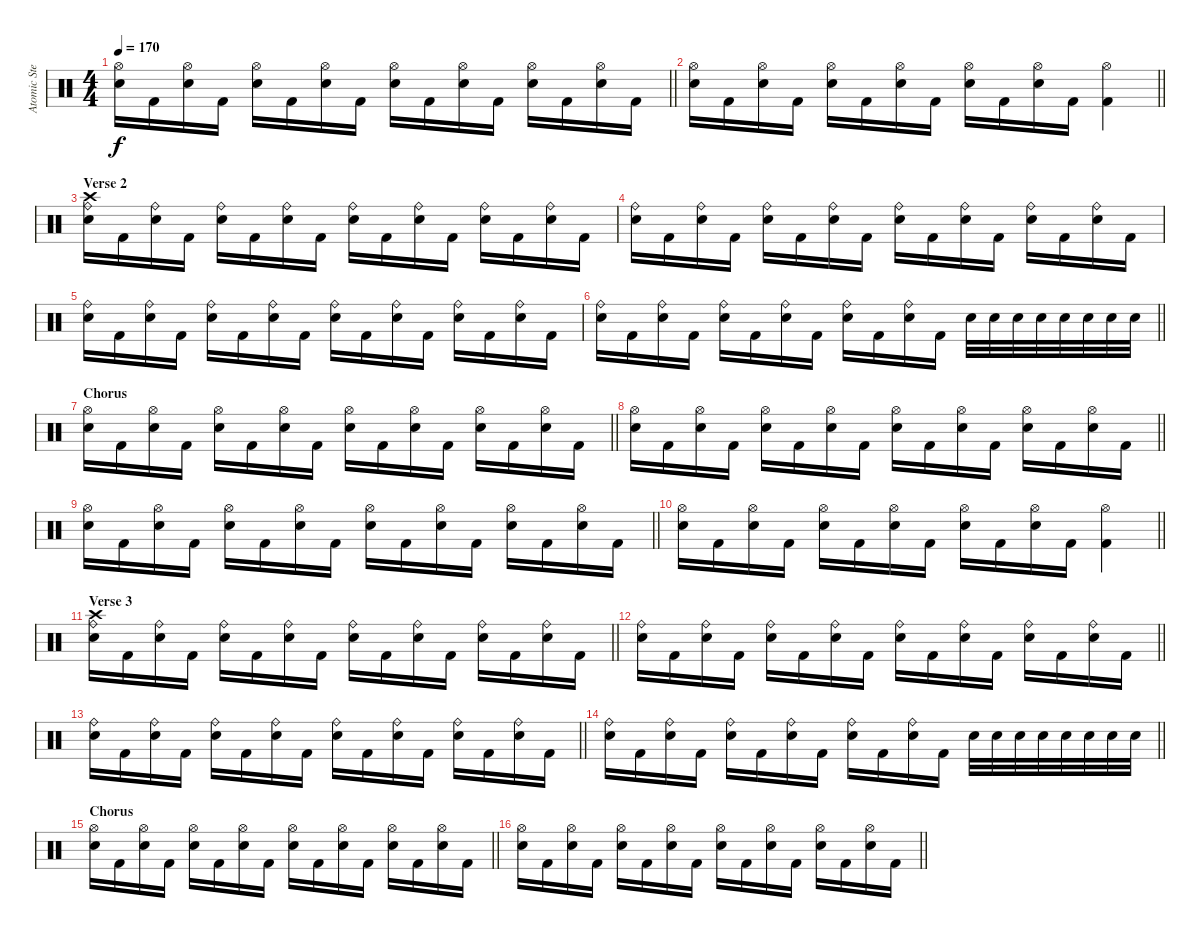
\track ("Atomic Steif" "Atomic Ste") {instrument percussion}
\staff {score}
\articulation defaults
\ts (4 4)
\tempo 170
\clef neutral
\barLineRight lightlight
\ks c
("Hi-Hat (open)" "Electric Snare (hit)").16{dy f} "Kick (hit) 2".16 ("Hi-Hat (open)" "Electric Snare (hit)").16 "Kick (hit) 2".16 ("Hi-Hat (open)" "Electric Snare (hit)").16 "Kick (hit) 2".16 ("Hi-Hat (open)" "Electric Snare (hit)").16 "Kick (hit) 2".16 ("Hi-Hat (open)" "Electric Snare (hit)").16 "Kick (hit) 2".16 ("Hi-Hat (open)" "Electric Snare (hit)").16 "Kick (hit) 2".16 ("Hi-Hat (open)" "Electric Snare (hit)").16 "Kick (hit) 2".16 ("Hi-Hat (open)" "Electric Snare (hit)").16 "Kick (hit) 2".16 |
\barLineRight lightlight
("Hi-Hat (open)" "Electric Snare (hit)").16 "Kick (hit) 2".16 ("Hi-Hat (open)" "Electric Snare (hit)").16 "Kick (hit) 2".16 ("Hi-Hat (open)" "Electric Snare (hit)").16 "Kick (hit) 2".16 ("Hi-Hat (open)" "Electric Snare (hit)").16 "Kick (hit) 2".16 ("Hi-Hat (open)" "Electric Snare (hit)").16 "Kick (hit) 2".16 ("Hi-Hat (open)" "Electric Snare (hit)").16 "Kick (hit) 2".16 ("Hi-Hat (open)" "Kick (hit) 2").4 |
\section ("" "Verse 2")
("Crash high (hit)" "Ride (bell)" "Electric Snare (hit)").16 "Kick (hit) 2".16 ("Ride (bell)" "Electric Snare (hit)").16 "Kick (hit) 2".16 ("Ride (bell)" "Electric Snare (hit)").16 "Kick (hit) 2".16 ("Ride (bell)" "Electric Snare (hit)").16 "Kick (hit) 2".16 ("Ride (bell)" "Electric Snare (hit)").16 "Kick (hit) 2".16 ("Ride (bell)" "Electric Snare (hit)").16 "Kick (hit) 2".16 ("Ride (bell)" "Electric Snare (hit)").16 "Kick (hit) 2".16 ("Ride (bell)" "Electric Snare (hit)").16 "Kick (hit) 2".16 |
("Ride (bell)" "Electric Snare (hit)").16 "Kick (hit) 2".16 ("Ride (bell)" "Electric Snare (hit)").16 "Kick (hit) 2".16 ("Ride (bell)" "Electric Snare (hit)").16 "Kick (hit) 2".16 ("Ride (bell)" "Electric Snare (hit)").16 "Kick (hit) 2".16 ("Ride (bell)" "Electric Snare (hit)").16 "Kick (hit) 2".16 ("Ride (bell)" "Electric Snare (hit)").16 "Kick (hit) 2".16 ("Ride (bell)" "Electric Snare (hit)").16 "Kick (hit) 2".16 ("Ride (bell)" "Electric Snare (hit)").16 "Kick (hit) 2".16 |
("Ride (bell)" "Electric Snare (hit)").16 "Kick (hit) 2".16 ("Ride (bell)" "Electric Snare (hit)").16 "Kick (hit) 2".16 ("Ride (bell)" "Electric Snare (hit)").16 "Kick (hit) 2".16 ("Ride (bell)" "Electric Snare (hit)").16 "Kick (hit) 2".16 ("Ride (bell)" "Electric Snare (hit)").16 "Kick (hit) 2".16 ("Ride (bell)" "Electric Snare (hit)").16 "Kick (hit) 2".16 ("Ride (bell)" "Electric Snare (hit)").16 "Kick (hit) 2".16 ("Ride (bell)" "Electric Snare (hit)").16 "Kick (hit) 2".16 |
\barLineRight lightlight
("Ride (bell)" "Electric Snare (hit)").16 "Kick (hit) 2".16 ("Ride (bell)" "Electric Snare (hit)").16 "Kick (hit) 2".16 ("Ride (bell)" "Electric Snare (hit)").16 "Kick (hit) 2".16 ("Ride (bell)" "Electric Snare (hit)").16 "Kick (hit) 2".16 ("Ride (bell)" "Electric Snare (hit)").16 "Kick (hit) 2".16 ("Ride (bell)" "Electric Snare (hit)").16 "Kick (hit) 2".16 "Electric Snare (hit)".32 "Electric Snare (hit)".32 "Electric Snare (hit)".32 "Electric Snare (hit)".32 "Electric Snare (hit)".32 "Electric Snare (hit)".32 "Electric Snare (hit)".32 "Electric Snare (hit)".32 |
\section ("" "Chorus")
\barLineRight lightlight
("Hi-Hat (open)" "Electric Snare (hit)").16 "Kick (hit) 2".16 ("Hi-Hat (open)" "Electric Snare (hit)").16 "Kick (hit) 2".16 ("Hi-Hat (open)" "Electric Snare (hit)").16 "Kick (hit) 2".16 ("Hi-Hat (open)" "Electric Snare (hit)").16 "Kick (hit) 2".16 ("Hi-Hat (open)" "Electric Snare (hit)").16 "Kick (hit) 2".16 ("Hi-Hat (open)" "Electric Snare (hit)").16 "Kick (hit) 2".16 ("Hi-Hat (open)" "Electric Snare (hit)").16 "Kick (hit) 2".16 ("Hi-Hat (open)" "Electric Snare (hit)").16 "Kick (hit) 2".16 |
\barLineRight lightlight
("Hi-Hat (open)" "Electric Snare (hit)").16 "Kick (hit) 2".16 ("Hi-Hat (open)" "Electric Snare (hit)").16 "Kick (hit) 2".16 ("Hi-Hat (open)" "Electric Snare (hit)").16 "Kick (hit) 2".16 ("Hi-Hat (open)" "Electric Snare (hit)").16 "Kick (hit) 2".16 ("Hi-Hat (open)" "Electric Snare (hit)").16 "Kick (hit) 2".16 ("Hi-Hat (open)" "Electric Snare (hit)").16 "Kick (hit) 2".16 ("Hi-Hat (open)" "Electric Snare (hit)").16 "Kick (hit) 2".16 ("Hi-Hat (open)" "Electric Snare (hit)").16 "Kick (hit) 2".16 |
\barLineRight lightlight
("Hi-Hat (open)" "Electric Snare (hit)").16 "Kick (hit) 2".16 ("Hi-Hat (open)" "Electric Snare (hit)").16 "Kick (hit) 2".16 ("Hi-Hat (open)" "Electric Snare (hit)").16 "Kick (hit) 2".16 ("Hi-Hat (open)" "Electric Snare (hit)").16 "Kick (hit) 2".16 ("Hi-Hat (open)" "Electric Snare (hit)").16 "Kick (hit) 2".16 ("Hi-Hat (open)" "Electric Snare (hit)").16 "Kick (hit) 2".16 ("Hi-Hat (open)" "Electric Snare (hit)").16 "Kick (hit) 2".16 ("Hi-Hat (open)" "Electric Snare (hit)").16 "Kick (hit) 2".16 |
\barLineRight lightlight
("Hi-Hat (open)" "Electric Snare (hit)").16 "Kick (hit) 2".16 ("Hi-Hat (open)" "Electric Snare (hit)").16 "Kick (hit) 2".16 ("Hi-Hat (open)" "Electric Snare (hit)").16 "Kick (hit) 2".16 ("Hi-Hat (open)" "Electric Snare (hit)").16 "Kick (hit) 2".16 ("Hi-Hat (open)" "Electric Snare (hit)").16 "Kick (hit) 2".16 ("Hi-Hat (open)" "Electric Snare (hit)").16 "Kick (hit) 2".16 ("Hi-Hat (open)" "Kick (hit) 2").4 |
\section ("" "Verse 3")
\barLineRight lightlight
("Crash high (hit)" "Ride (bell)" "Electric Snare (hit)").16 "Kick (hit) 2".16 ("Ride (bell)" "Electric Snare (hit)").16 "Kick (hit) 2".16 ("Ride (bell)" "Electric Snare (hit)").16 "Kick (hit) 2".16 ("Ride (bell)" "Electric Snare (hit)").16 "Kick (hit) 2".16 ("Ride (bell)" "Electric Snare (hit)").16 "Kick (hit) 2".16 ("Ride (bell)" "Electric Snare (hit)").16 "Kick (hit) 2".16 ("Ride (bell)" "Electric Snare (hit)").16 "Kick (hit) 2".16 ("Ride (bell)" "Electric Snare (hit)").16 "Kick (hit) 2".16 |
\barLineRight lightlight
("Ride (bell)" "Electric Snare (hit)").16 "Kick (hit) 2".16 ("Ride (bell)" "Electric Snare (hit)").16 "Kick (hit) 2".16 ("Ride (bell)" "Electric Snare (hit)").16 "Kick (hit) 2".16 ("Ride (bell)" "Electric Snare (hit)").16 "Kick (hit) 2".16 ("Ride (bell)" "Electric Snare (hit)").16 "Kick (hit) 2".16 ("Ride (bell)" "Electric Snare (hit)").16 "Kick (hit) 2".16 ("Ride (bell)" "Electric Snare (hit)").16 "Kick (hit) 2".16 ("Ride (bell)" "Electric Snare (hit)").16 "Kick (hit) 2".16 |
\barLineRight lightlight
("Ride (bell)" "Electric Snare (hit)").16 "Kick (hit) 2".16 ("Ride (bell)" "Electric Snare (hit)").16 "Kick (hit) 2".16 ("Ride (bell)" "Electric Snare (hit)").16 "Kick (hit) 2".16 ("Ride (bell)" "Electric Snare (hit)").16 "Kick (hit) 2".16 ("Ride (bell)" "Electric Snare (hit)").16 "Kick (hit) 2".16 ("Ride (bell)" "Electric Snare (hit)").16 "Kick (hit) 2".16 ("Ride (bell)" "Electric Snare (hit)").16 "Kick (hit) 2".16 ("Ride (bell)" "Electric Snare (hit)").16 "Kick (hit) 2".16 |
\barLineRight lightlight
("Ride (bell)" "Electric Snare (hit)").16 "Kick (hit) 2".16 ("Ride (bell)" "Electric Snare (hit)").16 "Kick (hit) 2".16 ("Ride (bell)" "Electric Snare (hit)").16 "Kick (hit) 2".16 ("Ride (bell)" "Electric Snare (hit)").16 "Kick (hit) 2".16 ("Ride (bell)" "Electric Snare (hit)").16 "Kick (hit) 2".16 ("Ride (bell)" "Electric Snare (hit)").16 "Kick (hit) 2".16 "Electric Snare (hit)".32 "Electric Snare (hit)".32 "Electric Snare (hit)".32 "Electric Snare (hit)".32 "Electric Snare (hit)".32 "Electric Snare (hit)".32 "Electric Snare (hit)".32 "Electric Snare (hit)".32 |
\section ("" "Chorus")
\barLineRight lightlight
("Hi-Hat (open)" "Electric Snare (hit)").16 "Kick (hit) 2".16 ("Hi-Hat (open)" "Electric Snare (hit)").16 "Kick (hit) 2".16 ("Hi-Hat (open)" "Electric Snare (hit)").16 "Kick (hit) 2".16 ("Hi-Hat (open)" "Electric Snare (hit)").16 "Kick (hit) 2".16 ("Hi-Hat (open)" "Electric Snare (hit)").16 "Kick (hit) 2".16 ("Hi-Hat (open)" "Electric Snare (hit)").16 "Kick (hit) 2".16 ("Hi-Hat (open)" "Electric Snare (hit)").16 "Kick (hit) 2".16 ("Hi-Hat (open)" "Electric Snare (hit)").16 "Kick (hit) 2".16 |
\barLineRight lightlight
("Hi-Hat (open)" "Electric Snare (hit)").16 "Kick (hit) 2".16 ("Hi-Hat (open)" "Electric Snare (hit)").16 "Kick (hit) 2".16 ("Hi-Hat (open)" "Electric Snare (hit)").16 "Kick (hit) 2".16 ("Hi-Hat (open)" "Electric Snare (hit)").16 "Kick (hit) 2".16 ("Hi-Hat (open)" "Electric Snare (hit)").16 "Kick (hit) 2".16 ("Hi-Hat (open)" "Electric Snare (hit)").16 "Kick (hit) 2".16 ("Hi-Hat (open)" "Electric Snare (hit)").16 "Kick (hit) 2".16 ("Hi-Hat (open)" "Electric Snare (hit)").16 "Kick (hit) 2".16
